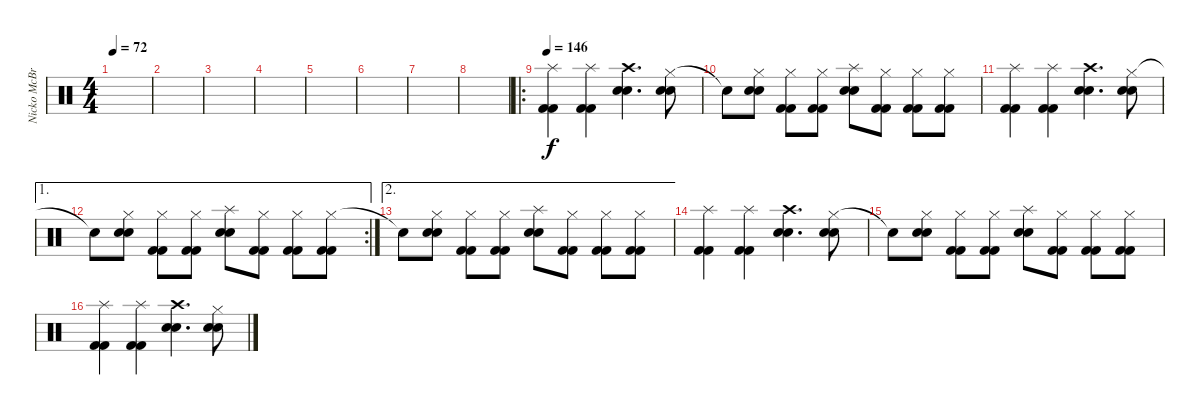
\track ("Nicko McBrain" "Nicko McBr") {instrument percussion}
\staff {score}
\articulation defaults
\ts (4 4)
\tempo 72
\clef neutral
\ks c
|
|
|
|
|
|
|
|
\ro
\tempo 146
("Splash (hit)" "Kick (hit) 2" "Kick (hit) 2").4 ("Splash (hit)" "Kick (hit) 2" "Kick (hit) 2").4 ("Crash high (hit)" "Snare (hit) 2" "Snare (hit) 2").4{d} ("Hi-Hat (closed)" "Snare (hit) 2" "Snare (hit) 2").8 |
"Snare (hit) 2"{t}.8 ("Hi-Hat (closed)" "Snare (hit) 2" "Snare (hit) 2").8 ("Hi-Hat (closed)" "Kick (hit) 2" "Kick (hit) 2").8 ("Hi-Hat (closed)" "Kick (hit) 2" "Kick (hit) 2").8 ("Splash (hit)" "Snare (hit) 2" "Snare (hit) 2").8 ("Hi-Hat (closed)" "Kick (hit) 2" "Kick (hit) 2").8 ("Hi-Hat (closed)" "Kick (hit) 2" "Kick (hit) 2").8 ("Hi-Hat (closed)" "Kick (hit) 2" "Kick (hit) 2").8 |
("Splash (hit)" "Kick (hit) 2" "Kick (hit) 2").4 ("Splash (hit)" "Kick (hit) 2" "Kick (hit) 2").4 ("Crash high (hit)" "Snare (hit) 2" "Snare (hit) 2").4{d} ("Hi-Hat (closed)" "Snare (hit) 2" "Snare (hit) 2").8 |
\ae 1
\rc 2 "Snare (hit) 2"{t}.8
("Hi-Hat (closed)" "Snare (hit) 2" "Snare (hit) 2").8 ("Hi-Hat (closed)" "Kick (hit) 2" "Kick (hit) 2").8 ("Hi-Hat (closed)" "Kick (hit) 2" "Kick (hit) 2").8 ("Splash (hit)" "Snare (hit) 2" "Snare (hit) 2").8 ("Hi-Hat (closed)" "Kick (hit) 2" "Kick (hit) 2").8 ("Hi-Hat (closed)" "Kick (hit) 2" "Kick (hit) 2").8 ("Hi-Hat (closed)" "Kick (hit) 2" "Kick (hit) 2").8 |
\ae 2 "Snare (hit) 2"{t}.8
("Hi-Hat (closed)" "Snare (hit) 2" "Snare (hit) 2").8 ("Hi-Hat (closed)" "Kick (hit) 2" "Kick (hit) 2").8 ("Hi-Hat (closed)" "Kick (hit) 2" "Kick (hit) 2").8 ("Splash (hit)" "Snare (hit) 2" "Snare (hit) 2").8 ("Hi-Hat (closed)" "Kick (hit) 2" "Kick (hit) 2").8 ("Hi-Hat (closed)" "Kick (hit) 2" "Kick (hit) 2").8 ("Hi-Hat (closed)" "Kick (hit) 2" "Kick (hit) 2").8 |
("Splash (hit)" "Kick (hit) 2" "Kick (hit) 2").4 ("Splash (hit)" "Kick (hit) 2" "Kick (hit) 2").4 ("Crash high (hit)" "Snare (hit) 2" "Snare (hit) 2").4{d} ("Hi-Hat (closed)" "Snare (hit) 2" "Snare (hit) 2").8 |
"Snare (hit) 2"{t}.8 ("Hi-Hat (closed)" "Snare (hit) 2" "Snare (hit) 2").8 ("Hi-Hat (closed)" "Kick (hit) 2" "Kick (hit) 2").8 ("Hi-Hat (closed)" "Kick (hit) 2" "Kick (hit) 2").8 ("Splash (hit)" "Snare (hit) 2" "Snare (hit) 2").8 ("Hi-Hat (closed)" "Kick (hit) 2" "Kick (hit) 2").8 ("Hi-Hat (closed)" "Kick (hit) 2" "Kick (hit) 2").8 ("Hi-Hat (closed)" "Kick (hit) 2" "Kick (hit) 2").8 |
("Splash (hit)" "Kick (hit) 2" "Kick (hit) 2").4 ("Splash (hit)" "Kick (hit) 2" "Kick (hit) 2").4 ("Crash high (hit)" "Snare (hit) 2" "Snare (hit) 2").4{d} ("Hi-Hat (closed)" "Snare (hit) 2" "Snare (hit) 2").8
